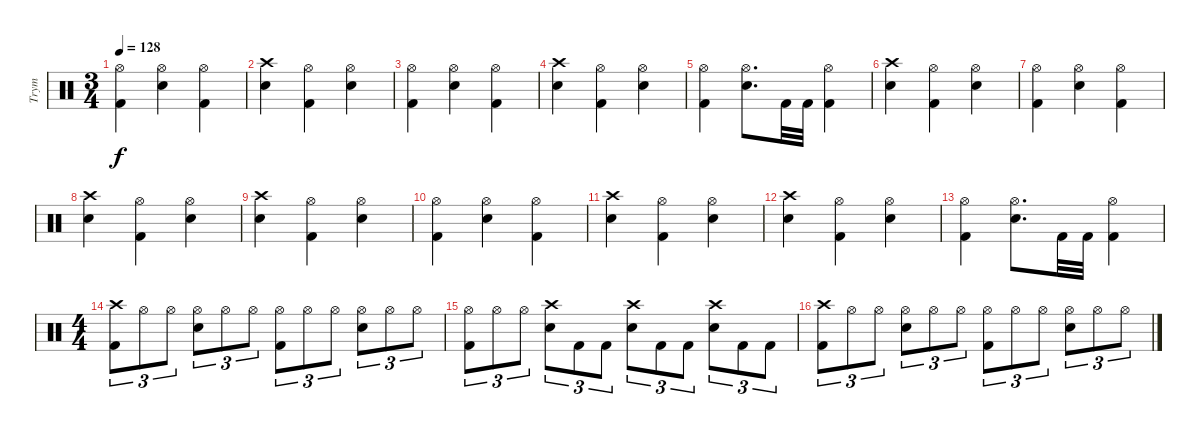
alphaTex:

\track ("Trym" "Trym") {instrument percussion}
\staff {score}
\articulation defaults
\ts (3 4)
\tempo 128
\clef neutral
\ks c
("Hi-Hat (open)" "Kick (hit) 2").4{dy f} ("Hi-Hat (open)" "Electric Snare (hit)").4 ("Hi-Hat (open)" "Kick (hit) 2").4 |
("Crash high (hit)" "Electric Snare (hit)").4 ("Hi-Hat (open)" "Kick (hit) 2").4 ("Hi-Hat (open)" "Electric Snare (hit)").4 |
("Hi-Hat (open)" "Kick (hit) 2").4 ("Hi-Hat (open)" "Electric Snare (hit)").4 ("Hi-Hat (open)" "Kick (hit) 2").4 |
("Crash high (hit)" "Electric Snare (hit)").4 ("Hi-Hat (open)" "Kick (hit) 2").4 ("Hi-Hat (open)" "Electric Snare (hit)").4 |
("Hi-Hat (open)" "Kick (hit) 2").4 ("Hi-Hat (open)" "Electric Snare (hit)").8{d} "Kick (hit) 2".32 "Kick (hit) 2".32 ("Hi-Hat (open)" "Kick (hit) 2").4 |
("Crash high (hit)" "Electric Snare (hit)").4 ("Hi-Hat (open)" "Kick (hit) 2").4 ("Hi-Hat (open)" "Electric Snare (hit)").4 |
("Hi-Hat (open)" "Kick (hit) 2").4 ("Hi-Hat (open)" "Electric Snare (hit)").4 ("Hi-Hat (open)" "Kick (hit) 2").4 |
("Crash high (hit)" "Electric Snare (hit)").4 ("Hi-Hat (open)" "Kick (hit) 2").4 ("Hi-Hat (open)" "Electric Snare (hit)").4 |
("Crash high (hit)" "Electric Snare (hit)").4 ("Hi-Hat (open)" "Kick (hit) 2").4 ("Hi-Hat (open)" "Electric Snare (hit)").4 |
("Hi-Hat (open)" "Kick (hit) 2").4 ("Hi-Hat (open)" "Electric Snare (hit)").4 ("Hi-Hat (open)" "Kick (hit) 2").4 |
("Crash high (hit)" "Electric Snare (hit)").4 ("Hi-Hat (open)" "Kick (hit) 2").4 ("Hi-Hat (open)" "Electric Snare (hit)").4 |
("Crash high (hit)" "Electric Snare (hit)").4 ("Hi-Hat (open)" "Kick (hit) 2").4 ("Hi-Hat (open)" "Electric Snare (hit)").4 |
("Hi-Hat (open)" "Kick (hit) 2").4 ("Hi-Hat (open)" "Electric Snare (hit)").8{d} "Kick (hit) 2".32 "Kick (hit) 2".32 ("Hi-Hat (open)" "Kick (hit) 2").4 |
\ts (4 4)
("Crash high (hit)" "Kick (hit) 2").8{tu (3 2)} "Hi-Hat (open)".8{tu (3 2)} "Hi-Hat (open)".8{tu (3 2)} ("Hi-Hat (open)" "Electric Snare (hit)").8{tu (3 2)} "Hi-Hat (open)".8{tu (3 2)} "Hi-Hat (open)".8{tu (3 2)} ("Hi-Hat (open)" "Kick (hit) 2").8{tu (3 2)} "Hi-Hat (open)".8{tu (3 2)} "Hi-Hat (open)".8{tu (3 2)} ("Hi-Hat (open)" "Electric Snare (hit)").8{tu (3 2)} "Hi-Hat (open)".8{tu (3 2)} "Hi-Hat (open)".8{tu (3 2)} |
("Hi-Hat (open)" "Kick (hit) 2").8{tu (3 2)} "Hi-Hat (open)".8{tu (3 2)} "Hi-Hat (open)".8{tu (3 2)} ("Crash high (hit)" "Electric Snare (hit)").8{tu (3 2)} "Kick (hit) 2".8{tu (3 2)} "Kick (hit) 2".8{tu (3 2)} ("Crash high (hit)" "Electric Snare (hit)").8{tu (3 2)} "Kick (hit) 2".8{tu (3 2)} "Kick (hit) 2".8{tu (3 2)} ("Crash high (hit)" "Electric Snare (hit)").8{tu (3 2)} "Kick (hit) 2".8{tu (3 2)} "Kick (hit) 2".8{tu (3 2)} |
("Crash high (hit)" "Kick (hit) 2").8{tu (3 2)} "Hi-Hat (open)".8{tu (3 2)} "Hi-Hat (open)".8{tu (3 2)} ("Hi-Hat (open)" "Electric Snare (hit)").8{tu (3 2)} "Hi-Hat (open)".8{tu (3 2)} "Hi-Hat (open)".8{tu (3 2)} ("Hi-Hat (open)" "Kick (hit) 2").8{tu (3 2)} "Hi-Hat (open)".8{tu (3 2)} "Hi-Hat (open)".8{tu (3 2)} ("Hi-Hat (open)" "Electric Snare (hit)").8{tu (3 2)} "Hi-Hat (open)".8{tu (3 2)} "Hi-Hat (open)".8{tu (3 2)}
